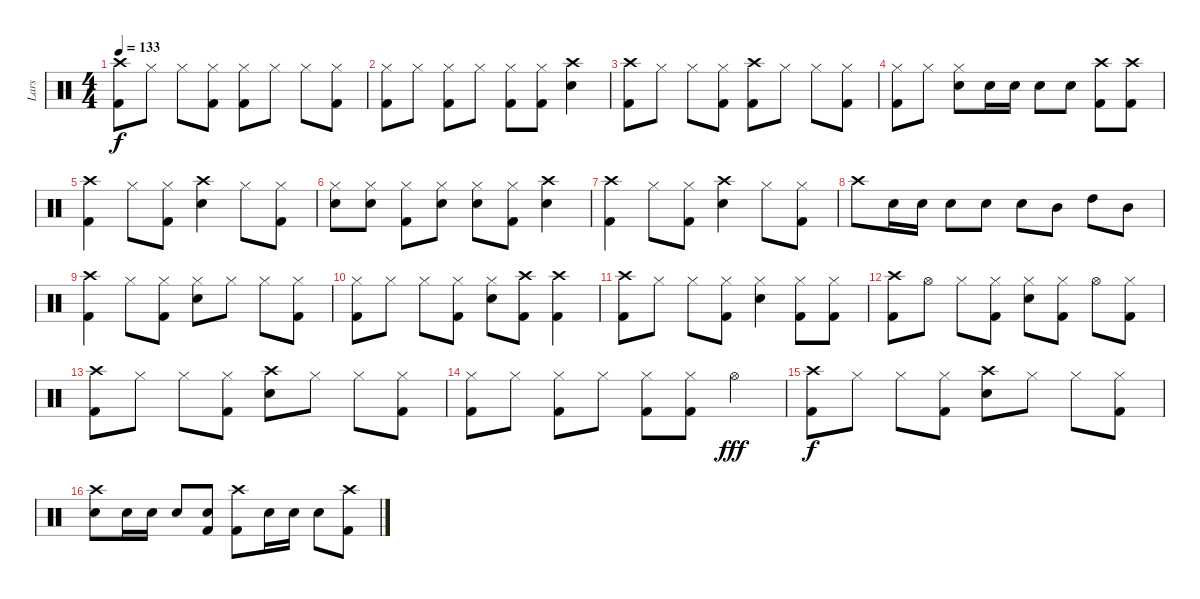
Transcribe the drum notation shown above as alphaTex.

\track ("Lars" "Lars") {instrument percussion}
\staff {score}
\articulation defaults
\ts (4 4)
\tempo 133
\clef neutral
\ks c
("Crash high (hit)" "Kick (hit) 2").8{dy f} "Hi-Hat (closed)".8 "Hi-Hat (closed)".8 ("Hi-Hat (closed)" "Kick (hit) 2").8 ("Hi-Hat (closed)" "Kick (hit) 2").8 "Hi-Hat (closed)".8 "Hi-Hat (closed)".8 ("Hi-Hat (closed)" "Kick (hit) 2").8 |
("Hi-Hat (closed)" "Kick (hit) 2").8 "Hi-Hat (closed)".8 ("Hi-Hat (closed)" "Kick (hit) 2").8 "Hi-Hat (closed)".8 ("Hi-Hat (closed)" "Kick (hit) 2").8 ("Hi-Hat (closed)" "Kick (hit) 2").8 ("Crash high (hit)" "Electric Snare (hit)").4 |
("Crash high (hit)" "Kick (hit) 2").8 "Hi-Hat (closed)".8 "Hi-Hat (closed)".8 ("Hi-Hat (closed)" "Kick (hit) 2").8 ("Crash high (hit)" "Kick (hit) 2").8 "Hi-Hat (closed)".8 "Hi-Hat (closed)".8 ("Hi-Hat (closed)" "Kick (hit) 2").8 |
("Hi-Hat (closed)" "Kick (hit) 2").8 "Hi-Hat (closed)".8 ("Hi-Hat (closed)" "Electric Snare (hit)").8 "Electric Snare (hit)".16 "Electric Snare (hit)".16 "Electric Snare (hit)".8 "Electric Snare (hit)".8 ("Crash high (hit)" "Kick (hit) 2").8 ("Crash high (hit)" "Kick (hit) 2").8 |
("Crash high (hit)" "Kick (hit) 2").4 "Hi-Hat (closed)".8 ("Hi-Hat (closed)" "Kick (hit) 2").8 ("Crash high (hit)" "Electric Snare (hit)").4 "Hi-Hat (closed)".8 ("Hi-Hat (closed)" "Kick (hit) 2").8 |
("Hi-Hat (closed)" "Electric Snare (hit)").8 ("Hi-Hat (closed)" "Electric Snare (hit)").8 ("Hi-Hat (closed)" "Kick (hit) 2").8 ("Hi-Hat (closed)" "Electric Snare (hit)").8 ("Hi-Hat (closed)" "Electric Snare (hit)").8 ("Hi-Hat (closed)" "Kick (hit) 2").8 ("Crash high (hit)" "Electric Snare (hit)").4 |
("Crash high (hit)" "Kick (hit) 2").4 "Hi-Hat (closed)".8 ("Hi-Hat (closed)" "Kick (hit) 2").8 ("Crash high (hit)" "Electric Snare (hit)").4 "Hi-Hat (closed)".8 ("Hi-Hat (closed)" "Kick (hit) 2").8 |
"Crash high (hit)".8 "Electric Snare (hit)".16 "Electric Snare (hit)".16 "Electric Snare (hit)".8 "Electric Snare (hit)".8 "Electric Snare (hit)".8 "Mid Tom (hit)".8 "High Tom (hit)".8 "Mid Tom (hit)".8 |
("Crash high (hit)" "Kick (hit) 2").4 "Hi-Hat (closed)".8 ("Hi-Hat (closed)" "Kick (hit) 2").8 ("Hi-Hat (closed)" "Electric Snare (hit)").8 "Hi-Hat (closed)".8 "Hi-Hat (closed)".8 ("Hi-Hat (closed)" "Kick (hit) 2").8 |
("Hi-Hat (closed)" "Kick (hit) 2").8 "Hi-Hat (closed)".8 "Hi-Hat (closed)".8 ("Hi-Hat (closed)" "Kick (hit) 2").8 ("Hi-Hat (closed)" "Electric Snare (hit)").8 ("Crash high (hit)" "Kick (hit) 2").8 ("Crash high (hit)" "Kick (hit) 2").4 |
("Crash high (hit)" "Kick (hit) 2").8 "Hi-Hat (closed)".8 "Hi-Hat (closed)".8 ("Hi-Hat (closed)" "Kick (hit) 2").8 ("Hi-Hat (closed)" "Electric Snare (hit)").4 ("Hi-Hat (closed)" "Kick (hit) 2").8 ("Hi-Hat (closed)" "Kick (hit) 2").8 |
("Crash high (hit)" "Kick (hit) 2").8 "Hi-Hat (open)".8 "Hi-Hat (closed)".8 ("Hi-Hat (closed)" "Kick (hit) 2").8 ("Hi-Hat (closed)" "Electric Snare (hit)").8 ("Hi-Hat (closed)" "Kick (hit) 2").8 "Hi-Hat (open)".8 ("Hi-Hat (closed)" "Kick (hit) 2").8 |
("Crash high (hit)" "Kick (hit) 2").8 "Hi-Hat (closed)".8 "Hi-Hat (closed)".8 ("Hi-Hat (closed)" "Kick (hit) 2").8 ("Crash high (hit)" "Electric Snare (hit)").8 "Hi-Hat (closed)".8 "Hi-Hat (closed)".8 ("Hi-Hat (closed)" "Kick (hit) 2").8 |
("Hi-Hat (closed)" "Kick (hit) 2").8 "Hi-Hat (closed)".8 ("Hi-Hat (closed)" "Kick (hit) 2").8 "Hi-Hat (closed)".8 ("Hi-Hat (closed)" "Kick (hit) 2").8 ("Hi-Hat (closed)" "Kick (hit) 2").8 "Hi-Hat (open)".4{dy fff} |
("Crash high (hit)" "Kick (hit) 2").8{dy f} "Hi-Hat (closed)".8 "Hi-Hat (closed)".8 ("Hi-Hat (closed)" "Kick (hit) 2").8 ("Crash high (hit)" "Electric Snare (hit)").8 "Hi-Hat (closed)".8 "Hi-Hat (closed)".8 ("Hi-Hat (closed)" "Kick (hit) 2").8 |
("Crash high (hit)" "Electric Snare (hit)").8 "Electric Snare (hit)".16 "Electric Snare (hit)".16 "Electric Snare (hit)".8 ("Kick (hit) 2" "Electric Snare (hit)").8 ("Crash high (hit)" "Kick (hit) 2").8 "Electric Snare (hit)".16 "Electric Snare (hit)".16 "Electric Snare (hit)".8 ("Crash high (hit)" "Kick (hit) 2").8
